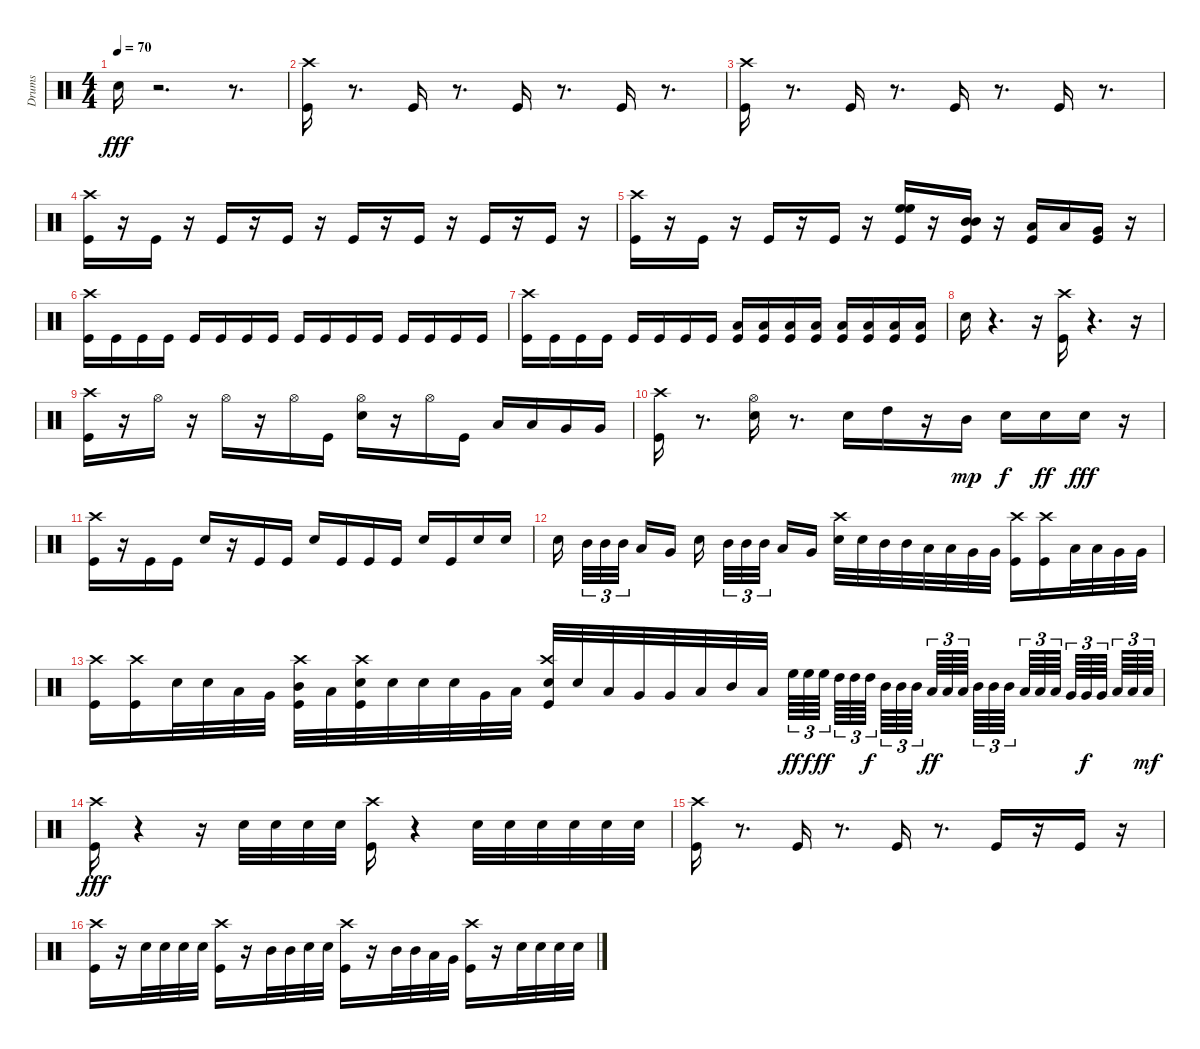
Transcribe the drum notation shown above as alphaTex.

\track ("Drums" "Drums") {instrument percussion}
\staff {score}
\articulation defaults
\ts (4 4)
\tempo 70
\clef neutral
\ks c "Snare (hit) 2".16{dy fff volume 16}
r.2{d} r.8{d} |
("Crash high (hit)" "Kick (hit)").16{volume 12} r.8{d} "Kick (hit)".16 r.8{d} "Kick (hit)".16 r.8{d} "Kick (hit)".16 r.8{d} |
("Kick (hit)" "Crash high (hit)").16 r.8{d} "Kick (hit)".16 r.8{d} "Kick (hit)".16 r.8{d} "Kick (hit)".16 r.8{d} |
("Kick (hit)" "Crash high (hit)").16 r.16 "Kick (hit)".16 r.16 "Kick (hit)".16 r.16 "Kick (hit)".16 r.16 "Kick (hit)".16 r.16 "Kick (hit)".16 r.16 "Kick (hit)".16 r.16 "Kick (hit)".16 r.16 |
("Crash high (hit)" "Kick (hit)").16 r.16 "Kick (hit)".16 r.16 "Kick (hit)".16 r.16 "Kick (hit)".16 r.16 ("High Floor Tom (hit)" "Kick (hit)" "High Floor Tom (hit)").16 r.16 ("Mid Tom (hit)" "Kick (hit)" "Mid Tom (hit)").16 r.16 ("Low Tom (hit)" "Kick (hit)").16 "Low Tom (hit)".16 ("Very Low Tom (hit)" "Kick (hit)").16 r.16 |
("Crash high (hit)" "Kick (hit)").16 "Kick (hit)".16 "Kick (hit)".16 "Kick (hit)".16 "Kick (hit)".16 "Kick (hit)".16 "Kick (hit)".16 "Kick (hit)".16 "Kick (hit)".16 "Kick (hit)".16 "Kick (hit)".16 "Kick (hit)".16 "Kick (hit)".16 "Kick (hit)".16 "Kick (hit)".16 "Kick (hit)".16 |
("Crash high (hit)" "Kick (hit)").16 "Kick (hit)".16 "Kick (hit)".16 "Kick (hit)".16 "Kick (hit)".16 "Kick (hit)".16 "Kick (hit)".16 "Kick (hit)".16 ("Low Floor Tom (hit)" "Kick (hit)").16 ("Low Floor Tom (hit)" "Kick (hit)").16 ("Low Floor Tom (hit)" "Kick (hit)").16 ("Low Floor Tom (hit)" "Kick (hit)").16 ("Low Floor Tom (hit)" "Kick (hit)").16 ("Low Floor Tom (hit)" "Kick (hit)").16 ("Low Floor Tom (hit)" "Kick (hit)").16 ("Low Floor Tom (hit)" "Kick (hit)").16 |
"Snare (hit) 2".16 r.4{d} r.16 ("Crash high (hit)" "Kick (hit)").16 r.4{d} r.16 |
("Crash high (hit)" "Kick (hit)").16 r.16 "Hi-Hat (open)".16 r.16 "Hi-Hat (open)".16 r.16 "Hi-Hat (open)".16 "Kick (hit)".16 ("Hi-Hat (open)" "Snare (hit) 2").16 r.16 "Hi-Hat (open)".16 "Kick (hit)".16 "Low Tom (hit)".16 "Low Tom (hit)".16 "Very Low Tom (hit)".16 "Very Low Tom (hit)".16 |
("Crash high (hit)" "Kick (hit)").16 r.8{d} ("Hi-Hat (open)" "Snare (hit) 2").16 r.8{d} "Snare (hit) 2".16 "High Tom (hit)".16 r.16 "Mid Tom (hit)".16{dy mp} "Snare (hit) 2".16{dy f} "Snare (hit) 2".16{dy ff} "Snare (hit) 2".16{dy fff} r.16 |
("Crash high (hit)" "Kick (hit)").16 r.16 "Kick (hit)".16 "Kick (hit)".16 "Snare (hit) 2".16 r.16 "Kick (hit)".16 "Kick (hit)".16 "Snare (hit) 2".16 "Kick (hit)".16 "Kick (hit)".16 "Kick (hit)".16 "Snare (hit) 2".16 "Kick (hit)".16 "Snare (hit) 2".16 "Snare (hit) 2".16 |
"Snare (hit) 2".16{beam splitsecondary} "Mid Tom (hit)".32{tu (3 2)} "Mid Tom (hit)".32{tu (3 2)} "Mid Tom (hit)".32{tu (3 2) beam splitsecondary} "Low Tom (hit)".16 "Very Low Tom (hit)".16 "Snare (hit) 2".16{beam splitsecondary} "Mid Tom (hit)".32{tu (3 2)} "Mid Tom (hit)".32{tu (3 2)} "Mid Tom (hit)".32{tu (3 2) beam splitsecondary} "Low Tom (hit)".16 "Very Low Tom (hit)".16 ("Snare (hit) 2" "Crash high (hit)").32 "Snare (hit) 2".32 "Mid Tom (hit)".32 "Mid Tom (hit)".32 "Low Tom (hit)".32 "Low Tom (hit)".32 "Very Low Tom (hit)".32 "Very Low Tom (hit)".32 ("Crash high (hit)" "Kick (hit)").16 ("Kick (hit)" "Crash high (hit)").16 "Low Tom (hit)".32 "Low Tom (hit)".32 "Very Low Tom (hit)".32 "Very Low Tom (hit)".32 |
("Crash high (hit)" "Kick (hit)").16 ("Kick (hit)" "Crash high (hit)").16 "Snare (hit) 2".32 "Snare (hit) 2".32 "Low Tom (hit)".32 "Very Low Tom (hit)".32 ("Mid Tom (hit)" "Crash high (hit)" "Kick (hit)").32 "Low Tom (hit)".32 ("Snare (hit) 2" "Crash high (hit)" "Kick (hit)").32 "Snare (hit) 2".32 "Snare (hit) 2".32 "Snare (hit) 2".32 "Very Low Tom (hit)".32 "Low Floor Tom (hit)".32 ("Snare (hit) 2" "Crash high (hit)" "Kick (hit)").32 "Snare (hit) 2".32 "Low Tom (hit)".32 "Very Low Tom (hit)".32 "Very Low Tom (hit)".32 "Low Floor Tom (hit)".32 "Mid Tom (hit)".32 "Low Tom (hit)".32 "High Floor Tom (hit)".64{tu (3 2) dy ff} "High Floor Tom (hit)".64{tu (3 2) dy f} "High Floor Tom (hit)".64{tu (3 2) dy ff beam splitsecondary} "High Tom (hit)".64{tu (3 2)} "High Tom (hit)".64{tu (3 2)} "High Tom (hit)".64{tu (3 2) dy f beam splitsecondary} "Mid Tom (hit)".64{tu (3 2)} "Mid Tom (hit)".64{tu (3 2)} "Mid Tom (hit)".64{tu (3 2) beam splitsecondary} "Low Tom (hit)".64{tu (3 2) dy ff} "Low Tom (hit)".64{tu (3 2)} "Low Tom (hit)".64{tu (3 2) beam splitsecondary} "Mid Tom (hit)".64{tu (3 2)} "Mid Tom (hit)".64{tu (3 2)} "Mid Tom (hit)".64{tu (3 2) beam splitsecondary} "Low Tom (hit)".64{tu (3 2)} "Low Tom (hit)".64{tu (3 2)} "Low Tom (hit)".64{tu (3 2) beam splitsecondary} "Very Low Tom (hit)".64{tu (3 2)} "Very Low Tom (hit)".64{tu (3 2) dy f} "Very Low Tom (hit)".64{tu (3 2) beam splitsecondary} "Low Floor Tom (hit)".64{tu (3 2)} "Low Floor Tom (hit)".64{tu (3 2)} "Low Floor Tom (hit)".64{tu (3 2) dy mf} |
("Crash high (hit)" "Kick (hit)").16{dy fff} r.4 r.16 "Snare (hit) 2".32 "Snare (hit) 2".32 "Snare (hit) 2".32 "Snare (hit) 2".32 ("Crash high (hit)" "Kick (hit)").16 r.4 "Snare (hit) 2".32 "Snare (hit) 2".32 "Snare (hit) 2".32 "Snare (hit) 2".32 "Snare (hit) 2".32 "Snare (hit) 2".32 |
("Crash high (hit)" "Kick (hit)").16 r.8{d} "Kick (hit)".16 r.8{d} "Kick (hit)".16 r.8{d} "Kick (hit)".16 r.16 "Kick (hit)".16 r.16 |
("Crash high (hit)" "Kick (hit)").16 r.16 "Snare (hit) 2".32 "Snare (hit) 2".32 "Snare (hit) 2".32 "Snare (hit) 2".32 ("Kick (hit)" "Crash high (hit)").16 r.16 "Mid Tom (hit)".32 "Mid Tom (hit)".32 "Snare (hit) 2".32 "Snare (hit) 2".32 ("Crash high (hit)" "Kick (hit)").16 r.16 "Mid Tom (hit)".32 "Mid Tom (hit)".32 "Low Tom (hit)".32 "Very Low Tom (hit)".32 ("Crash high (hit)" "Kick (hit)").16 r.16 "Snare (hit) 2".32 "Snare (hit) 2".32 "Snare (hit) 2".32 "Snare (hit) 2".32
